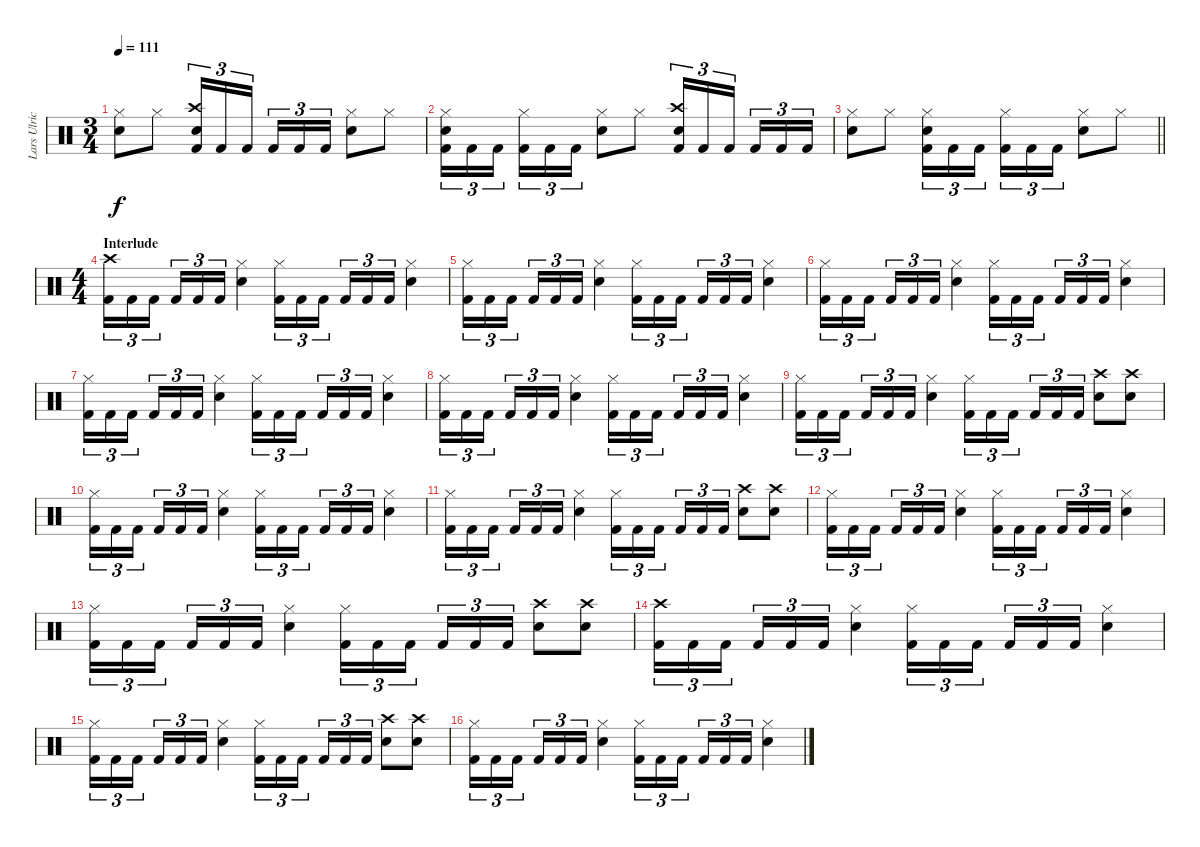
\track ("Lars Ulrich" "Lars Ulric") {instrument percussion}
\staff {score}
\articulation defaults
\ts (3 4)
\tempo 111
\clef neutral
\ks c
("Hi-Hat (closed)" "Electric Snare (hit)").8{dy f} "Hi-Hat (closed)".8 ("Crash high (hit)" "Electric Snare (hit)" "Kick (hit) 2").16{tu (3 2)} "Kick (hit) 2".16{tu (3 2)} "Kick (hit) 2".16{tu (3 2) beam splitsecondary} "Kick (hit) 2".16{tu (3 2)} "Kick (hit) 2".16{tu (3 2)} "Kick (hit) 2".16{tu (3 2)} ("Hi-Hat (closed)" "Electric Snare (hit)").8 "Hi-Hat (closed)".8 |
("Hi-Hat (closed)" "Electric Snare (hit)" "Kick (hit) 2").16{tu (3 2)} "Kick (hit) 2".16{tu (3 2)} "Kick (hit) 2".16{tu (3 2) beam splitsecondary} ("Hi-Hat (closed)" "Kick (hit) 2").16{tu (3 2)} "Kick (hit) 2".16{tu (3 2)} "Kick (hit) 2".16{tu (3 2)} ("Hi-Hat (closed)" "Electric Snare (hit)").8 "Hi-Hat (closed)".8 ("Crash high (hit)" "Electric Snare (hit)" "Kick (hit) 2").16{tu (3 2)} "Kick (hit) 2".16{tu (3 2)} "Kick (hit) 2".16{tu (3 2) beam splitsecondary} "Kick (hit) 2".16{tu (3 2)} "Kick (hit) 2".16{tu (3 2)} "Kick (hit) 2".16{tu (3 2)} |
\barLineRight lightlight
("Hi-Hat (closed)" "Electric Snare (hit)").8 "Hi-Hat (closed)".8 ("Hi-Hat (closed)" "Electric Snare (hit)" "Kick (hit) 2").16{tu (3 2)} "Kick (hit) 2".16{tu (3 2)} "Kick (hit) 2".16{tu (3 2) beam splitsecondary} ("Hi-Hat (closed)" "Kick (hit) 2").16{tu (3 2)} "Kick (hit) 2".16{tu (3 2)} "Kick (hit) 2".16{tu (3 2)} ("Hi-Hat (closed)" "Electric Snare (hit)").8 "Hi-Hat (closed)".8 |
\ts (4 4)
\section ("" "Interlude")
("Crash high (hit)" "Kick (hit) 2").16{tu (3 2)} "Kick (hit) 2".16{tu (3 2)} "Kick (hit) 2".16{tu (3 2) beam splitsecondary} "Kick (hit) 2".16{tu (3 2)} "Kick (hit) 2".16{tu (3 2)} "Kick (hit) 2".16{tu (3 2)} ("Hi-Hat (closed)" "Electric Snare (hit)").4 ("Hi-Hat (closed)" "Kick (hit) 2").16{tu (3 2)} "Kick (hit) 2".16{tu (3 2)} "Kick (hit) 2".16{tu (3 2) beam splitsecondary} "Kick (hit) 2".16{tu (3 2)} "Kick (hit) 2".16{tu (3 2)} "Kick (hit) 2".16{tu (3 2)} ("Hi-Hat (closed)" "Electric Snare (hit)").4 |
("Hi-Hat (closed)" "Kick (hit) 2").16{tu (3 2)} "Kick (hit) 2".16{tu (3 2)} "Kick (hit) 2".16{tu (3 2) beam splitsecondary} "Kick (hit) 2".16{tu (3 2)} "Kick (hit) 2".16{tu (3 2)} "Kick (hit) 2".16{tu (3 2)} ("Hi-Hat (closed)" "Electric Snare (hit)").4 ("Hi-Hat (closed)" "Kick (hit) 2").16{tu (3 2)} "Kick (hit) 2".16{tu (3 2)} "Kick (hit) 2".16{tu (3 2) beam splitsecondary} "Kick (hit) 2".16{tu (3 2)} "Kick (hit) 2".16{tu (3 2)} "Kick (hit) 2".16{tu (3 2)} ("Hi-Hat (closed)" "Electric Snare (hit)").4 |
("Hi-Hat (closed)" "Kick (hit) 2").16{tu (3 2)} "Kick (hit) 2".16{tu (3 2)} "Kick (hit) 2".16{tu (3 2) beam splitsecondary} "Kick (hit) 2".16{tu (3 2)} "Kick (hit) 2".16{tu (3 2)} "Kick (hit) 2".16{tu (3 2)} ("Hi-Hat (closed)" "Electric Snare (hit)").4 ("Hi-Hat (closed)" "Kick (hit) 2").16{tu (3 2)} "Kick (hit) 2".16{tu (3 2)} "Kick (hit) 2".16{tu (3 2) beam splitsecondary} "Kick (hit) 2".16{tu (3 2)} "Kick (hit) 2".16{tu (3 2)} "Kick (hit) 2".16{tu (3 2)} ("Hi-Hat (closed)" "Electric Snare (hit)").4 |
("Hi-Hat (closed)" "Kick (hit) 2").16{tu (3 2)} "Kick (hit) 2".16{tu (3 2)} "Kick (hit) 2".16{tu (3 2) beam splitsecondary} "Kick (hit) 2".16{tu (3 2)} "Kick (hit) 2".16{tu (3 2)} "Kick (hit) 2".16{tu (3 2)} ("Hi-Hat (closed)" "Electric Snare (hit)").4 ("Hi-Hat (closed)" "Kick (hit) 2").16{tu (3 2)} "Kick (hit) 2".16{tu (3 2)} "Kick (hit) 2".16{tu (3 2) beam splitsecondary} "Kick (hit) 2".16{tu (3 2)} "Kick (hit) 2".16{tu (3 2)} "Kick (hit) 2".16{tu (3 2)} ("Hi-Hat (closed)" "Electric Snare (hit)").4 |
("Hi-Hat (closed)" "Kick (hit) 2").16{tu (3 2)} "Kick (hit) 2".16{tu (3 2)} "Kick (hit) 2".16{tu (3 2) beam splitsecondary} "Kick (hit) 2".16{tu (3 2)} "Kick (hit) 2".16{tu (3 2)} "Kick (hit) 2".16{tu (3 2)} ("Hi-Hat (closed)" "Electric Snare (hit)").4 ("Hi-Hat (closed)" "Kick (hit) 2").16{tu (3 2)} "Kick (hit) 2".16{tu (3 2)} "Kick (hit) 2".16{tu (3 2) beam splitsecondary} "Kick (hit) 2".16{tu (3 2)} "Kick (hit) 2".16{tu (3 2)} "Kick (hit) 2".16{tu (3 2)} ("Hi-Hat (closed)" "Electric Snare (hit)").4 |
("Hi-Hat (closed)" "Kick (hit) 2").16{tu (3 2)} "Kick (hit) 2".16{tu (3 2)} "Kick (hit) 2".16{tu (3 2) beam splitsecondary} "Kick (hit) 2".16{tu (3 2)} "Kick (hit) 2".16{tu (3 2)} "Kick (hit) 2".16{tu (3 2)} ("Hi-Hat (closed)" "Electric Snare (hit)").4 ("Hi-Hat (closed)" "Kick (hit) 2").16{tu (3 2)} "Kick (hit) 2".16{tu (3 2)} "Kick (hit) 2".16{tu (3 2) beam splitsecondary} "Kick (hit) 2".16{tu (3 2)} "Kick (hit) 2".16{tu (3 2)} "Kick (hit) 2".16{tu (3 2)} ("Crash high (hit)" "Electric Snare (hit)").8 ("Crash high (hit)" "Electric Snare (hit)").8 |
("Hi-Hat (closed)" "Kick (hit) 2").16{tu (3 2)} "Kick (hit) 2".16{tu (3 2)} "Kick (hit) 2".16{tu (3 2) beam splitsecondary} "Kick (hit) 2".16{tu (3 2)} "Kick (hit) 2".16{tu (3 2)} "Kick (hit) 2".16{tu (3 2)} ("Hi-Hat (closed)" "Electric Snare (hit)").4 ("Hi-Hat (closed)" "Kick (hit) 2").16{tu (3 2)} "Kick (hit) 2".16{tu (3 2)} "Kick (hit) 2".16{tu (3 2) beam splitsecondary} "Kick (hit) 2".16{tu (3 2)} "Kick (hit) 2".16{tu (3 2)} "Kick (hit) 2".16{tu (3 2)} ("Hi-Hat (closed)" "Electric Snare (hit)").4 |
("Hi-Hat (closed)" "Kick (hit) 2").16{tu (3 2)} "Kick (hit) 2".16{tu (3 2)} "Kick (hit) 2".16{tu (3 2) beam splitsecondary} "Kick (hit) 2".16{tu (3 2)} "Kick (hit) 2".16{tu (3 2)} "Kick (hit) 2".16{tu (3 2)} ("Hi-Hat (closed)" "Electric Snare (hit)").4 ("Hi-Hat (closed)" "Kick (hit) 2").16{tu (3 2)} "Kick (hit) 2".16{tu (3 2)} "Kick (hit) 2".16{tu (3 2) beam splitsecondary} "Kick (hit) 2".16{tu (3 2)} "Kick (hit) 2".16{tu (3 2)} "Kick (hit) 2".16{tu (3 2)} ("Crash high (hit)" "Electric Snare (hit)").8 ("Crash high (hit)" "Electric Snare (hit)").8 |
("Hi-Hat (closed)" "Kick (hit) 2").16{tu (3 2)} "Kick (hit) 2".16{tu (3 2)} "Kick (hit) 2".16{tu (3 2) beam splitsecondary} "Kick (hit) 2".16{tu (3 2)} "Kick (hit) 2".16{tu (3 2)} "Kick (hit) 2".16{tu (3 2)} ("Hi-Hat (closed)" "Electric Snare (hit)").4 ("Hi-Hat (closed)" "Kick (hit) 2").16{tu (3 2)} "Kick (hit) 2".16{tu (3 2)} "Kick (hit) 2".16{tu (3 2) beam splitsecondary} "Kick (hit) 2".16{tu (3 2)} "Kick (hit) 2".16{tu (3 2)} "Kick (hit) 2".16{tu (3 2)} ("Hi-Hat (closed)" "Electric Snare (hit)").4 |
("Hi-Hat (closed)" "Kick (hit) 2").16{tu (3 2)} "Kick (hit) 2".16{tu (3 2)} "Kick (hit) 2".16{tu (3 2) beam splitsecondary} "Kick (hit) 2".16{tu (3 2)} "Kick (hit) 2".16{tu (3 2)} "Kick (hit) 2".16{tu (3 2)} ("Hi-Hat (closed)" "Electric Snare (hit)").4 ("Hi-Hat (closed)" "Kick (hit) 2").16{tu (3 2)} "Kick (hit) 2".16{tu (3 2)} "Kick (hit) 2".16{tu (3 2) beam splitsecondary} "Kick (hit) 2".16{tu (3 2)} "Kick (hit) 2".16{tu (3 2)} "Kick (hit) 2".16{tu (3 2)} ("Crash high (hit)" "Electric Snare (hit)").8 ("Crash high (hit)" "Electric Snare (hit)").8 |
("Crash high (hit)" "Kick (hit) 2").16{tu (3 2)} "Kick (hit) 2".16{tu (3 2)} "Kick (hit) 2".16{tu (3 2) beam splitsecondary} "Kick (hit) 2".16{tu (3 2)} "Kick (hit) 2".16{tu (3 2)} "Kick (hit) 2".16{tu (3 2)} ("Hi-Hat (closed)" "Electric Snare (hit)").4 ("Hi-Hat (closed)" "Kick (hit) 2").16{tu (3 2)} "Kick (hit) 2".16{tu (3 2)} "Kick (hit) 2".16{tu (3 2) beam splitsecondary} "Kick (hit) 2".16{tu (3 2)} "Kick (hit) 2".16{tu (3 2)} "Kick (hit) 2".16{tu (3 2)} ("Hi-Hat (closed)" "Electric Snare (hit)").4 |
("Hi-Hat (closed)" "Kick (hit) 2").16{tu (3 2)} "Kick (hit) 2".16{tu (3 2)} "Kick (hit) 2".16{tu (3 2) beam splitsecondary} "Kick (hit) 2".16{tu (3 2)} "Kick (hit) 2".16{tu (3 2)} "Kick (hit) 2".16{tu (3 2)} ("Hi-Hat (closed)" "Electric Snare (hit)").4 ("Hi-Hat (closed)" "Kick (hit) 2").16{tu (3 2)} "Kick (hit) 2".16{tu (3 2)} "Kick (hit) 2".16{tu (3 2) beam splitsecondary} "Kick (hit) 2".16{tu (3 2)} "Kick (hit) 2".16{tu (3 2)} "Kick (hit) 2".16{tu (3 2)} ("Crash high (hit)" "Electric Snare (hit)").8 ("Crash high (hit)" "Electric Snare (hit)").8 |
("Hi-Hat (closed)" "Kick (hit) 2").16{tu (3 2)} "Kick (hit) 2".16{tu (3 2)} "Kick (hit) 2".16{tu (3 2) beam splitsecondary} "Kick (hit) 2".16{tu (3 2)} "Kick (hit) 2".16{tu (3 2)} "Kick (hit) 2".16{tu (3 2)} ("Hi-Hat (closed)" "Electric Snare (hit)").4 ("Hi-Hat (closed)" "Kick (hit) 2").16{tu (3 2)} "Kick (hit) 2".16{tu (3 2)} "Kick (hit) 2".16{tu (3 2) beam splitsecondary} "Kick (hit) 2".16{tu (3 2)} "Kick (hit) 2".16{tu (3 2)} "Kick (hit) 2".16{tu (3 2)} ("Hi-Hat (closed)" "Electric Snare (hit)").4
